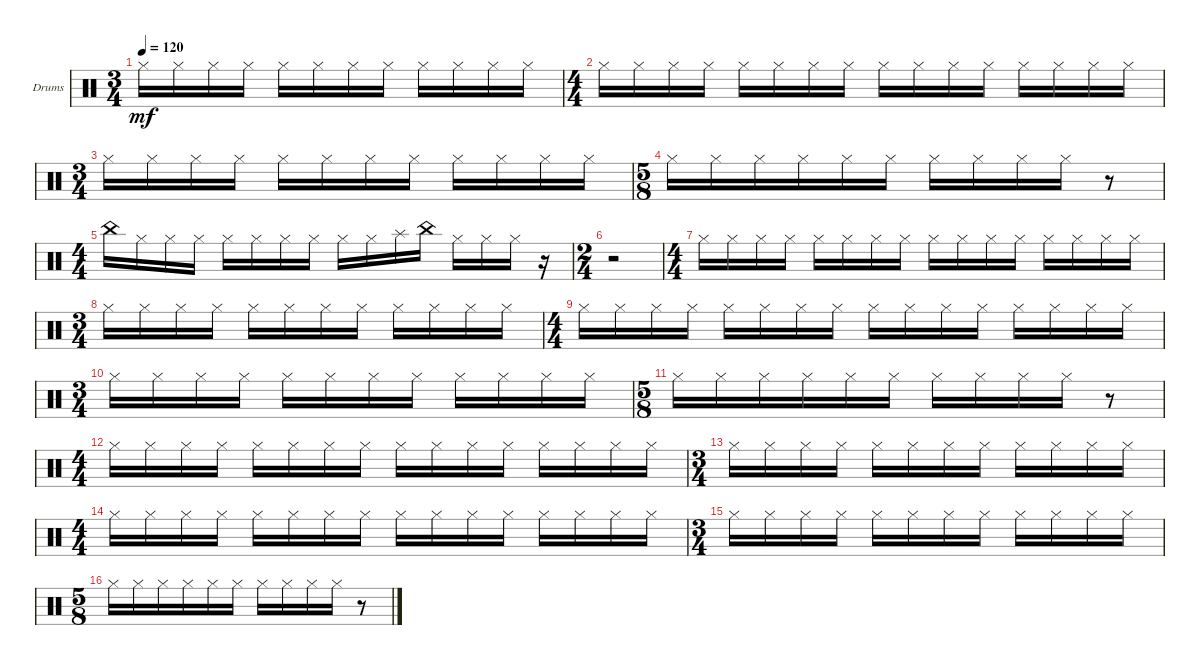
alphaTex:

\bracketExtendMode groupsimilarinstruments
\firstSystemTrackNameOrientation horizontal
\otherSystemsTrackNameOrientation horizontal
\track ("Drumkit" "Drums") {multiBarRest instrument percussion}
\staff {score}
\articulation defaults
\ts (3 4)
\tempo 120
\clef neutral
\ks c "Hi-Hat (closed)".16{dy mf} "Hi-Hat (closed)".16 "Hi-Hat (closed)".16 "Hi-Hat (closed)".16 "Hi-Hat (closed)".16 "Hi-Hat (closed)".16 "Hi-Hat (closed)".16 "Hi-Hat (closed)".16 "Hi-Hat (closed)".16 "Hi-Hat (closed)".16 "Hi-Hat (closed)".16 "Hi-Hat (closed)".16
|
\ts (4 4)
"Hi-Hat (closed)".16 "Hi-Hat (closed)".16 "Hi-Hat (closed)".16 "Hi-Hat (closed)".16 "Hi-Hat (closed)".16 "Hi-Hat (closed)".16 "Hi-Hat (closed)".16 "Hi-Hat (closed)".16 "Hi-Hat (closed)".16 "Hi-Hat (closed)".16 "Hi-Hat (closed)".16 "Hi-Hat (closed)".16 "Hi-Hat (closed)".16 "Hi-Hat (closed)".16 "Hi-Hat (closed)".16 "Hi-Hat (closed)".16 |
\ts (3 4)
"Hi-Hat (closed)".16 "Hi-Hat (closed)".16 "Hi-Hat (closed)".16 "Hi-Hat (closed)".16 "Hi-Hat (closed)".16 "Hi-Hat (closed)".16 "Hi-Hat (closed)".16 "Hi-Hat (closed)".16 "Hi-Hat (closed)".16 "Hi-Hat (closed)".16 "Hi-Hat (closed)".16 "Hi-Hat (closed)".16 |
\ts (5 8)
"Hi-Hat (closed)".16 "Hi-Hat (closed)".16 "Hi-Hat (closed)".16 "Hi-Hat (closed)".16 "Hi-Hat (closed)".16 "Hi-Hat (closed)".16 "Hi-Hat (closed)".16 "Hi-Hat (closed)".16 "Hi-Hat (closed)".16 "Hi-Hat (closed)".16 r.8 |
\ts (4 4)
"China (hit)".16 "Hi-Hat (closed)".16 "Hi-Hat (closed)".16 "Hi-Hat (closed)".16 "Hi-Hat (closed)".16 "Hi-Hat (closed)".16 "Hi-Hat (closed)".16 "Hi-Hat (closed)".16 "Hi-Hat (closed)".16 "Hi-Hat (closed)".16 "Splash (hit)".16 "China (hit)".16 "Hi-Hat (closed)".16 "Hi-Hat (closed)".16 "Hi-Hat (closed)".16 r.16 |
\ts (2 4)
r.2 |
\ts (4 4)
"Hi-Hat (closed)".16 "Hi-Hat (closed)".16 "Hi-Hat (closed)".16 "Hi-Hat (closed)".16 "Hi-Hat (closed)".16 "Hi-Hat (closed)".16 "Hi-Hat (closed)".16 "Hi-Hat (closed)".16 "Hi-Hat (closed)".16 "Hi-Hat (closed)".16 "Hi-Hat (closed)".16 "Hi-Hat (closed)".16 "Hi-Hat (closed)".16 "Hi-Hat (closed)".16 "Hi-Hat (closed)".16 "Hi-Hat (closed)".16 |
\ts (3 4)
"Hi-Hat (closed)".16 "Hi-Hat (closed)".16 "Hi-Hat (closed)".16 "Hi-Hat (closed)".16 "Hi-Hat (closed)".16 "Hi-Hat (closed)".16 "Hi-Hat (closed)".16 "Hi-Hat (closed)".16 "Hi-Hat (closed)".16 "Hi-Hat (closed)".16 "Hi-Hat (closed)".16 "Hi-Hat (closed)".16 |
\ts (4 4)
"Hi-Hat (closed)".16 "Hi-Hat (closed)".16 "Hi-Hat (closed)".16 "Hi-Hat (closed)".16 "Hi-Hat (closed)".16 "Hi-Hat (closed)".16 "Hi-Hat (closed)".16 "Hi-Hat (closed)".16 "Hi-Hat (closed)".16 "Hi-Hat (closed)".16 "Hi-Hat (closed)".16 "Hi-Hat (closed)".16 "Hi-Hat (closed)".16 "Hi-Hat (closed)".16 "Hi-Hat (closed)".16 "Hi-Hat (closed)".16 |
\ts (3 4)
"Hi-Hat (closed)".16 "Hi-Hat (closed)".16 "Hi-Hat (closed)".16 "Hi-Hat (closed)".16 "Hi-Hat (closed)".16 "Hi-Hat (closed)".16 "Hi-Hat (closed)".16 "Hi-Hat (closed)".16 "Hi-Hat (closed)".16 "Hi-Hat (closed)".16 "Hi-Hat (closed)".16 "Hi-Hat (closed)".16 |
\ts (5 8)
"Hi-Hat (closed)".16 "Hi-Hat (closed)".16 "Hi-Hat (closed)".16 "Hi-Hat (closed)".16 "Hi-Hat (closed)".16 "Hi-Hat (closed)".16 "Hi-Hat (closed)".16 "Hi-Hat (closed)".16 "Hi-Hat (closed)".16 "Hi-Hat (closed)".16 r.8 |
\ts (4 4)
"Hi-Hat (closed)".16 "Hi-Hat (closed)".16 "Hi-Hat (closed)".16 "Hi-Hat (closed)".16 "Hi-Hat (closed)".16 "Hi-Hat (closed)".16 "Hi-Hat (closed)".16 "Hi-Hat (closed)".16 "Hi-Hat (closed)".16 "Hi-Hat (closed)".16 "Hi-Hat (closed)".16 "Hi-Hat (closed)".16 "Hi-Hat (closed)".16 "Hi-Hat (closed)".16 "Hi-Hat (closed)".16 "Hi-Hat (closed)".16 |
\ts (3 4)
"Hi-Hat (closed)".16 "Hi-Hat (closed)".16 "Hi-Hat (closed)".16 "Hi-Hat (closed)".16 "Hi-Hat (closed)".16 "Hi-Hat (closed)".16 "Hi-Hat (closed)".16 "Hi-Hat (closed)".16 "Hi-Hat (closed)".16 "Hi-Hat (closed)".16 "Hi-Hat (closed)".16 "Hi-Hat (closed)".16 |
\ts (4 4)
"Hi-Hat (closed)".16 "Hi-Hat (closed)".16 "Hi-Hat (closed)".16 "Hi-Hat (closed)".16 "Hi-Hat (closed)".16 "Hi-Hat (closed)".16 "Hi-Hat (closed)".16 "Hi-Hat (closed)".16 "Hi-Hat (closed)".16 "Hi-Hat (closed)".16 "Hi-Hat (closed)".16 "Hi-Hat (closed)".16 "Hi-Hat (closed)".16 "Hi-Hat (closed)".16 "Hi-Hat (closed)".16 "Hi-Hat (closed)".16 |
\ts (3 4)
"Hi-Hat (closed)".16 "Hi-Hat (closed)".16 "Hi-Hat (closed)".16 "Hi-Hat (closed)".16 "Hi-Hat (closed)".16 "Hi-Hat (closed)".16 "Hi-Hat (closed)".16 "Hi-Hat (closed)".16 "Hi-Hat (closed)".16 "Hi-Hat (closed)".16 "Hi-Hat (closed)".16 "Hi-Hat (closed)".16 |
\ts (5 8)
"Hi-Hat (closed)".16 "Hi-Hat (closed)".16 "Hi-Hat (closed)".16 "Hi-Hat (closed)".16 "Hi-Hat (closed)".16 "Hi-Hat (closed)".16 "Hi-Hat (closed)".16 "Hi-Hat (closed)".16 "Hi-Hat (closed)".16 "Hi-Hat (closed)".16 r.8
